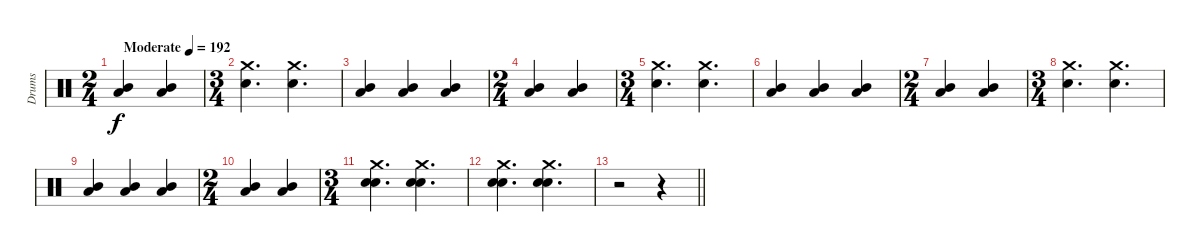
\track ("Drums" "Drums") {instrument percussion}
\staff {score}
\articulation defaults
\ts (2 4)
\tempo (192 "Moderate")
\clef neutral
\ks c
("Mid Tom (hit)" "Low Tom (hit)").4{dy f} ("Mid Tom (hit)" "Low Tom (hit)").4 |
\ts (3 4)
("Crash medium (hit)" "Snare (hit) 2").4{d} ("Crash medium (hit)" "Snare (hit) 2").4{d} |
("Mid Tom (hit)" "Low Tom (hit)").4 ("Mid Tom (hit)" "Low Tom (hit)").4 ("Mid Tom (hit)" "Low Tom (hit)").4 |
\ts (2 4)
("Mid Tom (hit)" "Low Tom (hit)").4 ("Mid Tom (hit)" "Low Tom (hit)").4 |
\ts (3 4)
("Crash medium (hit)" "Snare (hit) 2").4{d} ("Crash medium (hit)" "Snare (hit) 2").4{d} |
("Mid Tom (hit)" "Low Tom (hit)").4 ("Mid Tom (hit)" "Low Tom (hit)").4 ("Mid Tom (hit)" "Low Tom (hit)").4 |
\ts (2 4)
("Mid Tom (hit)" "Low Tom (hit)").4 ("Mid Tom (hit)" "Low Tom (hit)").4 |
\ts (3 4)
("Crash medium (hit)" "Snare (hit) 2").4{d} ("Crash medium (hit)" "Snare (hit) 2").4{d} |
("Mid Tom (hit)" "Low Tom (hit)").4 ("Mid Tom (hit)" "Low Tom (hit)").4 ("Mid Tom (hit)" "Low Tom (hit)").4 |
\ts (2 4)
("Mid Tom (hit)" "Low Tom (hit)").4 ("Mid Tom (hit)" "Low Tom (hit)").4 |
\ts (3 4)
("Crash medium (hit)" "Snare (hit) 2" "Snare (hit) 2").4{d} ("Crash medium (hit)" "Snare (hit) 2" "Snare (hit) 2").4{d} |
("Crash medium (hit)" "Snare (hit) 2" "Snare (hit) 2").4{d} ("Crash medium (hit)" "Snare (hit) 2" "Snare (hit) 2").4{d} |
\barLineRight lightlight
r.2 r.4
